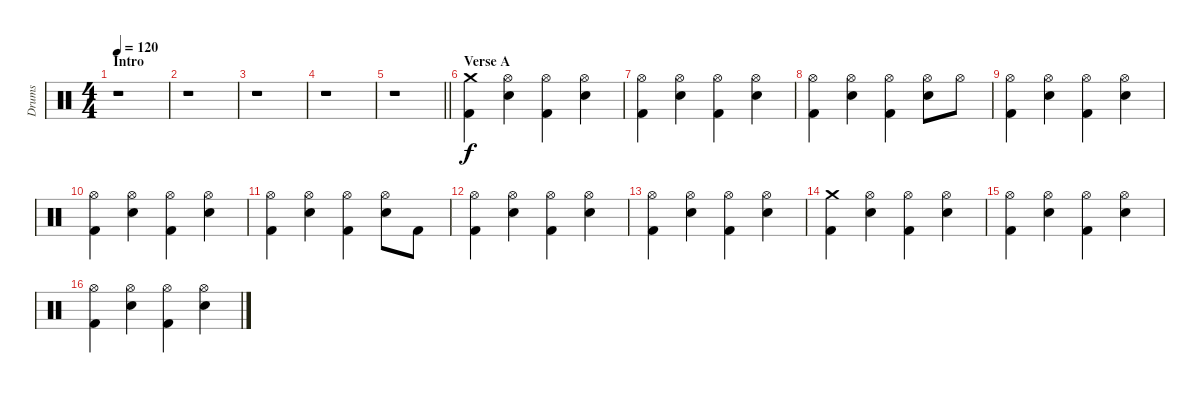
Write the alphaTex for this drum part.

\track ("Drums" "Drums") {instrument percussion}
\staff {score}
\articulation defaults
\ts (4 4)
\section ("" "Intro")
\tempo 120
\clef neutral
\ks c
r.1{dy f} |
r.1 |
r.1 |
r.1 |
\barLineRight lightlight
r.1 |
\section ("" "Verse A")
("Crash medium (hit)" "Kick (hit) 2").4 ("Hi-Hat (open)" "Electric Snare (hit)").4 ("Hi-Hat (open)" "Kick (hit) 2").4 ("Hi-Hat (open)" "Electric Snare (hit)").4 |
("Hi-Hat (open)" "Kick (hit) 2").4 ("Hi-Hat (open)" "Electric Snare (hit)").4 ("Hi-Hat (open)" "Kick (hit) 2").4 ("Hi-Hat (open)" "Electric Snare (hit)").4 |
("Hi-Hat (open)" "Kick (hit) 2").4 ("Hi-Hat (open)" "Electric Snare (hit)").4 ("Hi-Hat (open)" "Kick (hit) 2").4 ("Hi-Hat (open)" "Electric Snare (hit)").8 "Hi-Hat (open)".8 |
("Hi-Hat (open)" "Kick (hit) 2").4 ("Hi-Hat (open)" "Electric Snare (hit)").4 ("Hi-Hat (open)" "Kick (hit) 2").4 ("Hi-Hat (open)" "Electric Snare (hit)").4 |
("Hi-Hat (open)" "Kick (hit) 2").4 ("Hi-Hat (open)" "Electric Snare (hit)").4 ("Hi-Hat (open)" "Kick (hit) 2").4 ("Hi-Hat (open)" "Electric Snare (hit)").4 |
("Hi-Hat (open)" "Kick (hit) 2").4 ("Hi-Hat (open)" "Electric Snare (hit)").4 ("Hi-Hat (open)" "Kick (hit) 2").4 ("Hi-Hat (open)" "Electric Snare (hit)").8 "Kick (hit) 2".8 |
("Hi-Hat (open)" "Kick (hit) 2").4 ("Hi-Hat (open)" "Electric Snare (hit)").4 ("Hi-Hat (open)" "Kick (hit) 2").4 ("Hi-Hat (open)" "Electric Snare (hit)").4 |
("Hi-Hat (open)" "Kick (hit) 2").4 ("Hi-Hat (open)" "Electric Snare (hit)").4 ("Hi-Hat (open)" "Kick (hit) 2").4 ("Hi-Hat (open)" "Electric Snare (hit)").4 |
("Crash medium (hit)" "Kick (hit) 2").4 ("Hi-Hat (open)" "Electric Snare (hit)").4 ("Hi-Hat (open)" "Kick (hit) 2").4 ("Hi-Hat (open)" "Electric Snare (hit)").4 |
("Hi-Hat (open)" "Kick (hit) 2").4 ("Hi-Hat (open)" "Electric Snare (hit)").4 ("Hi-Hat (open)" "Kick (hit) 2").4 ("Hi-Hat (open)" "Electric Snare (hit)").4 |
("Hi-Hat (open)" "Kick (hit) 2").4 ("Hi-Hat (open)" "Electric Snare (hit)").4 ("Hi-Hat (open)" "Kick (hit) 2").4 ("Hi-Hat (open)" "Electric Snare (hit)").4
